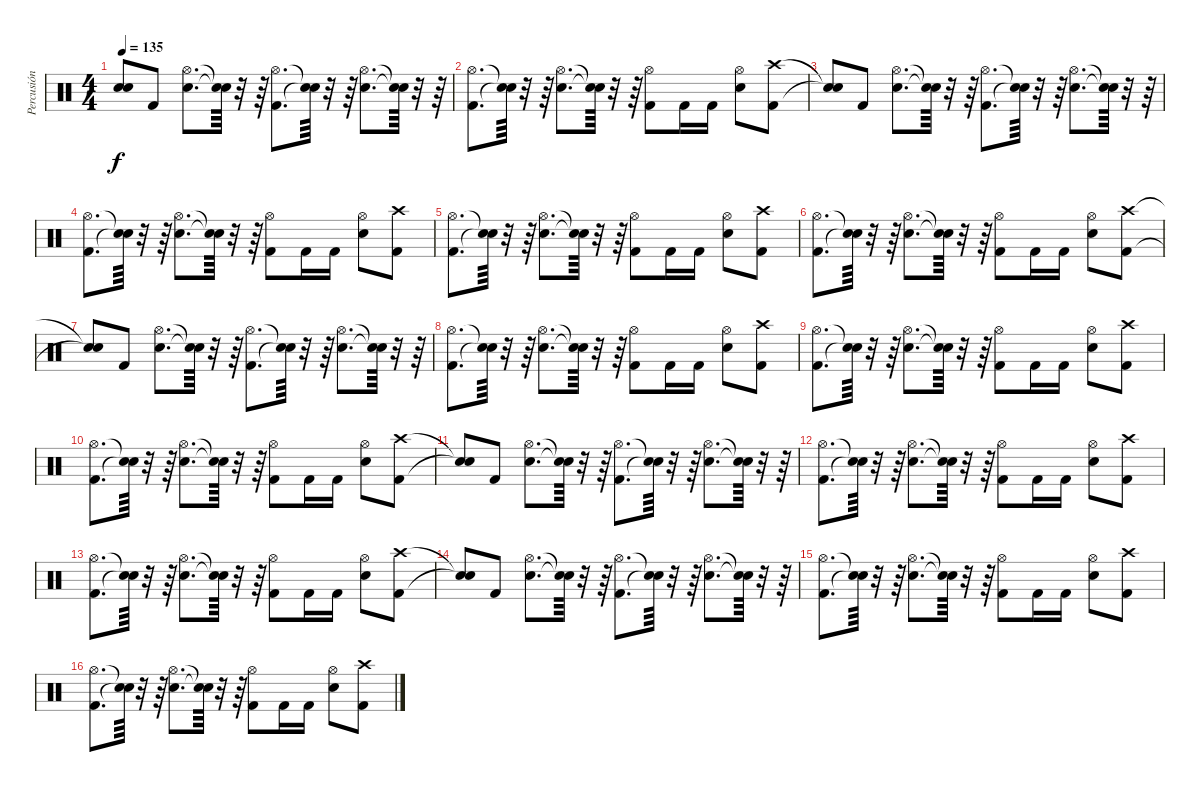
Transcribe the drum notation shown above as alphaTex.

\track ("Percusión" "Percusión") {instrument percussion}
\staff {score}
\articulation defaults
\ts (4 4)
\tempo 135
\clef neutral
\ks c
("Snare (hit)" "Snare (hit)").8{dy f} "Kick (hit) 2".8 ("Snare (hit) 2" "Hi-Hat (open)").8{d} ("Snare (hit)"{t} "Snare (hit)"{t}).64 r.32 r.64 ("Kick (hit) 2" "Hi-Hat (open)").8{d} ("Snare (hit)"{t} "Snare (hit)"{t}).64 r.32 r.64 ("Snare (hit) 2" "Hi-Hat (open)").8{d} ("Snare (hit)"{t} "Snare (hit)"{t}).64 r.32 r.64 |
("Kick (hit) 2" "Hi-Hat (open)").8{d} ("Snare (hit)"{t} "Snare (hit)"{t}).64 r.32 r.64 ("Snare (hit) 2" "Hi-Hat (open)").8{d} ("Snare (hit)"{t} "Snare (hit)"{t}).64 r.32 r.64 ("Kick (hit) 2" "Hi-Hat (open)").8 "Kick (hit) 2".16 "Kick (hit) 2".16 ("Snare (hit) 2" "Hi-Hat (open)").8 ("Kick (hit) 2" "Crash high (hit)").8 |
("Snare (hit)"{t} "Snare (hit)"{t}).8 "Kick (hit) 2".8 ("Snare (hit) 2" "Hi-Hat (open)").8{d} ("Snare (hit)"{t} "Snare (hit)"{t}).64 r.32 r.64 ("Kick (hit) 2" "Hi-Hat (open)").8{d} ("Snare (hit)"{t} "Snare (hit)"{t}).64 r.32 r.64 ("Snare (hit) 2" "Hi-Hat (open)").8{d} ("Snare (hit)"{t} "Snare (hit)"{t}).64 r.32 r.64 |
("Kick (hit) 2" "Hi-Hat (open)").8{d} ("Snare (hit)"{t} "Snare (hit)"{t}).64 r.32 r.64 ("Snare (hit) 2" "Hi-Hat (open)").8{d} ("Snare (hit)"{t} "Snare (hit)"{t}).64 r.32 r.64 ("Kick (hit) 2" "Hi-Hat (open)").8 "Kick (hit) 2".16 "Kick (hit) 2".16 ("Snare (hit) 2" "Hi-Hat (open)").8 ("Kick (hit) 2" "Crash high (hit)").8 |
("Kick (hit) 2" "Hi-Hat (open)").8{d} ("Snare (hit)"{t} "Snare (hit)"{t}).64 r.32 r.64 ("Snare (hit) 2" "Hi-Hat (open)").8{d} ("Snare (hit)"{t} "Snare (hit)"{t}).64 r.32 r.64 ("Kick (hit) 2" "Hi-Hat (open)").8 "Kick (hit) 2".16 "Kick (hit) 2".16 ("Snare (hit) 2" "Hi-Hat (open)").8 ("Kick (hit) 2" "Crash high (hit)").8 |
("Kick (hit) 2" "Hi-Hat (open)").8{d} ("Snare (hit)"{t} "Snare (hit)"{t}).64 r.32 r.64 ("Snare (hit) 2" "Hi-Hat (open)").8{d} ("Snare (hit)"{t} "Snare (hit)"{t}).64 r.32 r.64 ("Kick (hit) 2" "Hi-Hat (open)").8 "Kick (hit) 2".16 "Kick (hit) 2".16 ("Snare (hit) 2" "Hi-Hat (open)").8 ("Kick (hit) 2" "Crash high (hit)").8 |
("Snare (hit)"{t} "Snare (hit)"{t}).8 "Kick (hit) 2".8 ("Snare (hit) 2" "Hi-Hat (open)").8{d} ("Snare (hit)"{t} "Snare (hit)"{t}).64 r.32 r.64 ("Kick (hit) 2" "Hi-Hat (open)").8{d} ("Snare (hit)"{t} "Snare (hit)"{t}).64 r.32 r.64 ("Snare (hit) 2" "Hi-Hat (open)").8{d} ("Snare (hit)"{t} "Snare (hit)"{t}).64 r.32 r.64 |
("Kick (hit) 2" "Hi-Hat (open)").8{d} ("Snare (hit)"{t} "Snare (hit)"{t}).64 r.32 r.64 ("Snare (hit) 2" "Hi-Hat (open)").8{d} ("Snare (hit)"{t} "Snare (hit)"{t}).64 r.32 r.64 ("Kick (hit) 2" "Hi-Hat (open)").8 "Kick (hit) 2".16 "Kick (hit) 2".16 ("Snare (hit) 2" "Hi-Hat (open)").8 ("Kick (hit) 2" "Crash high (hit)").8 |
("Kick (hit) 2" "Hi-Hat (open)").8{d} ("Snare (hit)"{t} "Snare (hit)"{t}).64 r.32 r.64 ("Snare (hit) 2" "Hi-Hat (open)").8{d} ("Snare (hit)"{t} "Snare (hit)"{t}).64 r.32 r.64 ("Kick (hit) 2" "Hi-Hat (open)").8 "Kick (hit) 2".16 "Kick (hit) 2".16 ("Snare (hit) 2" "Hi-Hat (open)").8 ("Kick (hit) 2" "Crash high (hit)").8 |
("Kick (hit) 2" "Hi-Hat (open)").8{d} ("Snare (hit)"{t} "Snare (hit)"{t}).64 r.32 r.64 ("Snare (hit) 2" "Hi-Hat (open)").8{d} ("Snare (hit)"{t} "Snare (hit)"{t}).64 r.32 r.64 ("Kick (hit) 2" "Hi-Hat (open)").8 "Kick (hit) 2".16 "Kick (hit) 2".16 ("Snare (hit) 2" "Hi-Hat (open)").8 ("Kick (hit) 2" "Crash high (hit)").8 |
("Snare (hit)"{t} "Snare (hit)"{t}).8 "Kick (hit) 2".8 ("Snare (hit) 2" "Hi-Hat (open)").8{d} ("Snare (hit)"{t} "Snare (hit)"{t}).64 r.32 r.64 ("Kick (hit) 2" "Hi-Hat (open)").8{d} ("Snare (hit)"{t} "Snare (hit)"{t}).64 r.32 r.64 ("Snare (hit) 2" "Hi-Hat (open)").8{d} ("Snare (hit)"{t} "Snare (hit)"{t}).64 r.32 r.64 |
("Kick (hit) 2" "Hi-Hat (open)").8{d} ("Snare (hit)"{t} "Snare (hit)"{t}).64 r.32 r.64 ("Snare (hit) 2" "Hi-Hat (open)").8{d} ("Snare (hit)"{t} "Snare (hit)"{t}).64 r.32 r.64 ("Kick (hit) 2" "Hi-Hat (open)").8 "Kick (hit) 2".16 "Kick (hit) 2".16 ("Snare (hit) 2" "Hi-Hat (open)").8 ("Kick (hit) 2" "Crash high (hit)").8 |
("Kick (hit) 2" "Hi-Hat (open)").8{d} ("Snare (hit)"{t} "Snare (hit)"{t}).64 r.32 r.64 ("Snare (hit) 2" "Hi-Hat (open)").8{d} ("Snare (hit)"{t} "Snare (hit)"{t}).64 r.32 r.64 ("Kick (hit) 2" "Hi-Hat (open)").8 "Kick (hit) 2".16 "Kick (hit) 2".16 ("Snare (hit) 2" "Hi-Hat (open)").8 ("Kick (hit) 2" "Crash high (hit)").8 |
("Snare (hit)"{t} "Snare (hit)"{t}).8 "Kick (hit) 2".8 ("Snare (hit) 2" "Hi-Hat (open)").8{d} ("Snare (hit)"{t} "Snare (hit)"{t}).64 r.32 r.64 ("Kick (hit) 2" "Hi-Hat (open)").8{d} ("Snare (hit)"{t} "Snare (hit)"{t}).64 r.32 r.64 ("Snare (hit) 2" "Hi-Hat (open)").8{d} ("Snare (hit)"{t} "Snare (hit)"{t}).64 r.32 r.64 |
("Kick (hit) 2" "Hi-Hat (open)").8{d} ("Snare (hit)"{t} "Snare (hit)"{t}).64 r.32 r.64 ("Snare (hit) 2" "Hi-Hat (open)").8{d} ("Snare (hit)"{t} "Snare (hit)"{t}).64 r.32 r.64 ("Kick (hit) 2" "Hi-Hat (open)").8 "Kick (hit) 2".16 "Kick (hit) 2".16 ("Snare (hit) 2" "Hi-Hat (open)").8 ("Kick (hit) 2" "Crash high (hit)").8 |
("Kick (hit) 2" "Hi-Hat (open)").8{d} ("Snare (hit)"{t} "Snare (hit)"{t}).64 r.32 r.64 ("Snare (hit) 2" "Hi-Hat (open)").8{d} ("Snare (hit)"{t} "Snare (hit)"{t}).64 r.32 r.64 ("Kick (hit) 2" "Hi-Hat (open)").8 "Kick (hit) 2".16 "Kick (hit) 2".16 ("Snare (hit) 2" "Hi-Hat (open)").8 ("Kick (hit) 2" "Crash high (hit)").8
